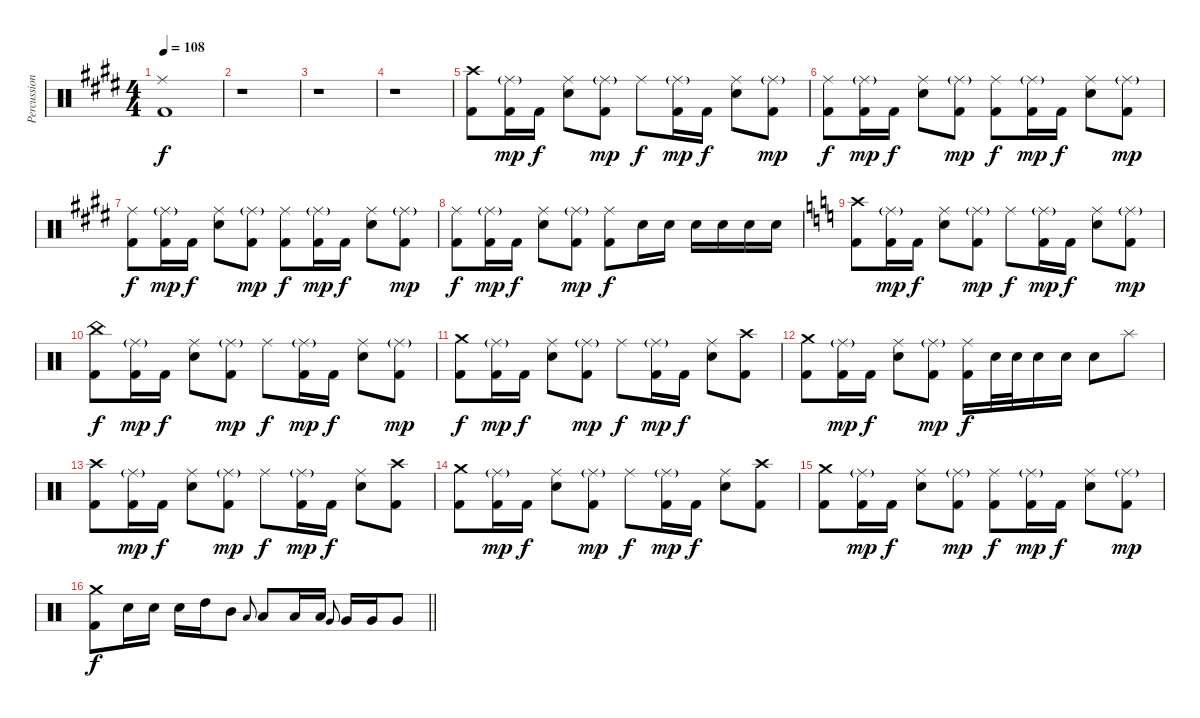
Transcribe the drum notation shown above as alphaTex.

\track ("Percussion" "Percussion") {instrument percussion}
\staff {score}
\articulation defaults
\ts (4 4)
\tempo 108
\clef neutral
\ks e
("Ride (middle)" "Kick (hit) 2").1{dy f} |
r.1 |
r.1 |
r.1 |
("Crash high (hit)" "Kick (hit) 2").8 ("Ride (middle)"{g} "Kick (hit) 2").16{dy mp} "Kick (hit) 2".16{dy f} ("Ride (middle)" "Electric Snare (hit)").8 ("Ride (middle)"{g} "Kick (hit) 2").8{dy mp} "Ride (middle)".8{dy f} ("Ride (middle)"{g} "Kick (hit) 2").16{dy mp} "Kick (hit) 2".16{dy f} ("Ride (middle)" "Electric Snare (hit)").8 ("Ride (middle)"{g} "Kick (hit) 2").8{dy mp} |
("Ride (middle)" "Kick (hit) 2").8{dy f} ("Ride (middle)"{g} "Kick (hit) 2").16{dy mp} "Kick (hit) 2".16{dy f} ("Ride (middle)" "Electric Snare (hit)").8 ("Ride (middle)"{g} "Kick (hit) 2").8{dy mp} ("Ride (middle)" "Kick (hit) 2").8{dy f} ("Ride (middle)"{g} "Kick (hit) 2").16{dy mp} "Kick (hit) 2".16{dy f} ("Ride (middle)" "Electric Snare (hit)").8 ("Ride (middle)"{g} "Kick (hit) 2").8{dy mp} |
("Ride (middle)" "Kick (hit) 2").8{dy f} ("Ride (middle)"{g} "Kick (hit) 2").16{dy mp} "Kick (hit) 2".16{dy f} ("Ride (middle)" "Electric Snare (hit)").8 ("Ride (middle)"{g} "Kick (hit) 2").8{dy mp} ("Ride (middle)" "Kick (hit) 2").8{dy f} ("Ride (middle)"{g} "Kick (hit) 2").16{dy mp} "Kick (hit) 2".16{dy f} ("Ride (middle)" "Electric Snare (hit)").8 ("Ride (middle)"{g} "Kick (hit) 2").8{dy mp} |
("Ride (middle)" "Kick (hit) 2").8{dy f} ("Ride (middle)"{g} "Kick (hit) 2").16{dy mp} "Kick (hit) 2".16{dy f} ("Ride (middle)" "Electric Snare (hit)").8 ("Ride (middle)"{g} "Kick (hit) 2").8{dy mp} ("Ride (middle)" "Kick (hit) 2").8{dy f} "Electric Snare (hit)".16 "Electric Snare (hit)".16 "Electric Snare (hit)".16 "Electric Snare (hit)".16 "Electric Snare (hit)".16 "Electric Snare (hit)".16 |
\ks c
("Crash high (hit)" "Kick (hit) 2").8 ("Ride (middle)"{g} "Kick (hit) 2").16{dy mp} "Kick (hit) 2".16{dy f} ("Ride (middle)" "Electric Snare (hit)").8 ("Ride (middle)"{g} "Kick (hit) 2").8{dy mp} "Ride (middle)".8{dy f} ("Ride (middle)"{g} "Kick (hit) 2").16{dy mp} "Kick (hit) 2".16{dy f} ("Ride (middle)" "Electric Snare (hit)").8 ("Ride (middle)"{g} "Kick (hit) 2").8{dy mp} |
("China (hit)" "Kick (hit) 2").8{dy f} ("Ride (middle)"{g} "Kick (hit) 2").16{dy mp} "Kick (hit) 2".16{dy f} ("Ride (middle)" "Electric Snare (hit)").8 ("Ride (middle)"{g} "Kick (hit) 2").8{dy mp} "Ride (middle)".8{dy f} ("Ride (middle)"{g} "Kick (hit) 2").16{dy mp} "Kick (hit) 2".16{dy f} ("Ride (middle)" "Electric Snare (hit)").8 ("Ride (middle)"{g} "Kick (hit) 2").8{dy mp} |
("Crash medium (hit)" "Kick (hit) 2").8{dy f} ("Ride (middle)"{g} "Kick (hit) 2").16{dy mp} "Kick (hit) 2".16{dy f} ("Ride (middle)" "Electric Snare (hit)").8 ("Ride (middle)"{g} "Kick (hit) 2").8{dy mp} "Ride (middle)".8{dy f} ("Ride (middle)"{g} "Kick (hit) 2").16{dy mp} "Kick (hit) 2".16{dy f} ("Ride (middle)" "Electric Snare (hit)").8 ("Crash high (hit)" "Kick (hit) 2").8 |
("Crash medium (hit)" "Kick (hit) 2").8 ("Ride (middle)"{g} "Kick (hit) 2").16{dy mp} "Kick (hit) 2".16{dy f} ("Ride (middle)" "Electric Snare (hit)").8 ("Ride (middle)"{g} "Kick (hit) 2").8{dy mp} ("Ride (middle)" "Kick (hit) 2").16{dy f} "Electric Snare (hit)".32 "Electric Snare (hit)".32 "Electric Snare (hit)".16 "Electric Snare (hit)".16 "Electric Snare (hit)".8 "Splash (hit)".8 |
("Crash high (hit)" "Kick (hit) 2").8 ("Ride (middle)"{g} "Kick (hit) 2").16{dy mp} "Kick (hit) 2".16{dy f} ("Ride (middle)" "Electric Snare (hit)").8 ("Ride (middle)"{g} "Kick (hit) 2").8{dy mp} "Ride (middle)".8{dy f} ("Ride (middle)"{g} "Kick (hit) 2").16{dy mp} "Kick (hit) 2".16{dy f} ("Ride (middle)" "Electric Snare (hit)").8 ("Crash high (hit)" "Kick (hit) 2").8 |
("Crash medium (hit)" "Kick (hit) 2").8 ("Ride (middle)"{g} "Kick (hit) 2").16{dy mp} "Kick (hit) 2".16{dy f} ("Ride (middle)" "Electric Snare (hit)").8 ("Ride (middle)"{g} "Kick (hit) 2").8{dy mp} "Ride (middle)".8{dy f} ("Ride (middle)"{g} "Kick (hit) 2").16{dy mp} "Kick (hit) 2".16{dy f} ("Ride (middle)" "Electric Snare (hit)").8 ("Crash high (hit)" "Kick (hit) 2").8 |
("Crash medium (hit)" "Kick (hit) 2").8 ("Ride (middle)"{g} "Kick (hit) 2").16{dy mp} "Kick (hit) 2".16{dy f} ("Ride (middle)" "Electric Snare (hit)").8 ("Ride (middle)"{g} "Kick (hit) 2").8{dy mp} ("Ride (middle)" "Kick (hit) 2").8{dy f} ("Ride (middle)"{g} "Kick (hit) 2").16{dy mp} "Kick (hit) 2".16{dy f} ("Ride (middle)" "Electric Snare (hit)").8 ("Ride (middle)"{g} "Kick (hit) 2").8{dy mp} |
\barLineRight lightlight
("Crash medium (hit)" "Kick (hit) 2").8{dy f} "Electric Snare (hit)".16 "Electric Snare (hit)".16 "Electric Snare (hit)".16 "High Tom (hit)".16 "Mid Tom (hit)".8 "Low Tom (hit)".8{gr onbeat} "Low Tom (hit)".8 "Low Tom (hit)".16 "Low Tom (hit)".16 "Very Low Tom (hit)".8{gr onbeat} "Very Low Tom (hit)".16 "Very Low Tom (hit)".16 "Very Low Tom (hit)".8
